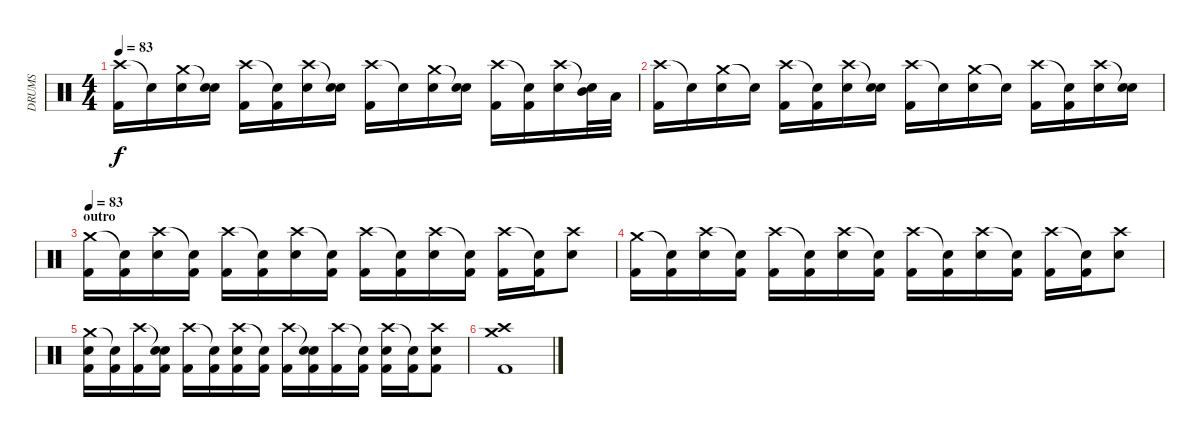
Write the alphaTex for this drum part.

\track ("DRUMS" "DRUMS") {instrument percussion}
\staff {score}
\articulation defaults
\ts (4 4)
\tempo 83
\clef neutral
\ks c
("Crash high (hit)" "Kick (hit) 2").16{dy f} "Snare (hit)"{t}.16 ("Crash medium (hit)" "Snare (hit) 2").16 ("Snare (hit)"{t} "Snare (hit) 2").16 ("Crash high (hit)" "Kick (hit) 2").16 ("Snare (hit)"{t} "Kick (hit) 2").16 ("Crash high (hit)" "Snare (hit) 2").16 ("Snare (hit)"{t} "Snare (hit) 2").16 ("Crash high (hit)" "Kick (hit) 2").16 "Snare (hit)"{t}.16 ("Crash medium (hit)" "Snare (hit) 2").16 ("Snare (hit)"{t} "Snare (hit) 2").16 ("Crash high (hit)" "Kick (hit) 2").16 ("Snare (hit)"{t} "Kick (hit) 2").16 ("Crash high (hit)" "Snare (hit) 2").16 ("Snare (hit)"{t} "Mid Tom (hit)").32 "Low Tom (hit)".32 |
("Crash high (hit)" "Kick (hit) 2").16 "Snare (hit)"{t}.16 ("Crash medium (hit)" "Snare (hit) 2").16 "Snare (hit)"{t}.16 ("Crash high (hit)" "Kick (hit) 2").16 ("Snare (hit)"{t} "Kick (hit) 2").16 ("Crash high (hit)" "Snare (hit) 2").16 ("Snare (hit)"{t} "Snare (hit) 2").16 ("Crash high (hit)" "Kick (hit) 2").16 "Snare (hit)"{t}.16 ("Crash medium (hit)" "Snare (hit) 2").16 "Snare (hit)"{t}.16 ("Crash high (hit)" "Kick (hit) 2").16 ("Snare (hit)"{t} "Kick (hit) 2").16 ("Crash high (hit)" "Snare (hit) 2").16 ("Snare (hit)"{t} "Snare (hit) 2").16 |
\section ("" "outro")
\tempo 83
("Crash medium (hit)" "Kick (hit) 2").16 ("Snare (hit)"{t} "Kick (hit) 2").16 ("Crash high (hit)" "Snare (hit) 2").16 ("Snare (hit)"{t} "Kick (hit) 2").16 ("Crash high (hit)" "Kick (hit) 2").16 ("Snare (hit)"{t} "Kick (hit) 2").16 ("Crash high (hit)" "Snare (hit) 2").16 ("Snare (hit)"{t} "Kick (hit) 2").16 ("Crash high (hit)" "Kick (hit) 2").16 ("Snare (hit)"{t} "Kick (hit) 2").16 ("Crash high (hit)" "Snare (hit) 2").16 ("Snare (hit)"{t} "Kick (hit) 2").16 ("Crash high (hit)" "Kick (hit) 2").16 ("Snare (hit)"{t} "Kick (hit) 2").16 ("Crash high (hit)" "Snare (hit) 2").8 |
("Crash medium (hit)" "Kick (hit) 2").16 ("Snare (hit)"{t} "Kick (hit) 2").16 ("Crash high (hit)" "Snare (hit) 2").16 ("Snare (hit)"{t} "Kick (hit) 2").16 ("Crash high (hit)" "Kick (hit) 2").16 ("Snare (hit)"{t} "Kick (hit) 2").16 ("Crash high (hit)" "Snare (hit) 2").16 ("Snare (hit)"{t} "Kick (hit) 2").16 ("Crash high (hit)" "Kick (hit) 2").16 ("Snare (hit)"{t} "Kick (hit) 2").16 ("Crash high (hit)" "Snare (hit) 2").16 ("Snare (hit)"{t} "Kick (hit) 2").16 ("Crash high (hit)" "Kick (hit) 2").16 ("Snare (hit)"{t} "Kick (hit) 2").16 ("Crash high (hit)" "Snare (hit) 2").8 |
("Crash medium (hit)" "Snare (hit) 2" "Kick (hit) 2").16 ("Snare (hit)"{t} "Kick (hit) 2").16 ("Crash high (hit)" "Kick (hit) 2").16 ("Snare (hit)"{t} "Snare (hit) 2" "Kick (hit) 2").16 ("Crash high (hit)" "Kick (hit) 2").16 ("Snare (hit)"{t} "Kick (hit) 2").16 ("Crash high (hit)" "Snare (hit) 2" "Kick (hit) 2").16 ("Snare (hit)"{t} "Kick (hit) 2").16 ("Crash high (hit)" "Kick (hit) 2").16 ("Snare (hit)"{t} "Snare (hit) 2" "Kick (hit) 2").16 ("Crash high (hit)" "Kick (hit) 2").16 ("Snare (hit)"{t} "Kick (hit) 2").16 ("Crash high (hit)" "Snare (hit) 2" "Kick (hit) 2").16 ("Snare (hit)"{t} "Kick (hit) 2").16 ("Crash high (hit)" "Snare (hit) 2" "Kick (hit) 2").8 |
("Crash high (hit)" "Crash medium (hit)" "Kick (hit) 2").1
